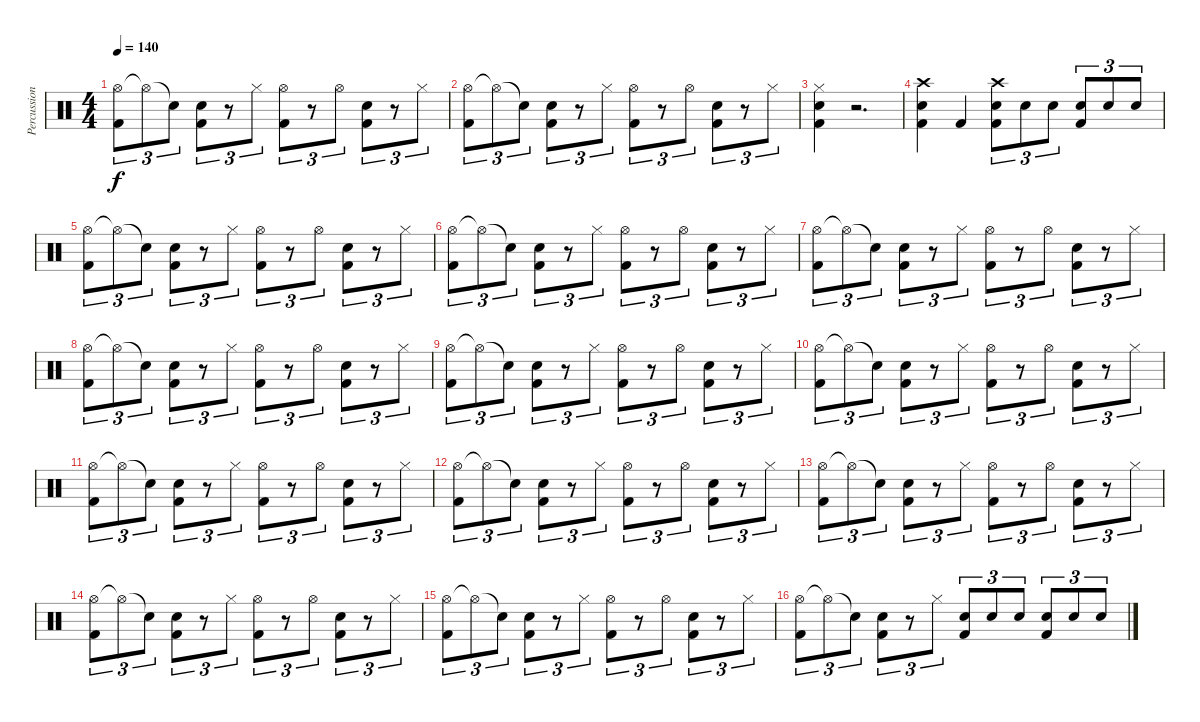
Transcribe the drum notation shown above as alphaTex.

\track ("Percussion" "Percussion") {instrument percussion}
\staff {score}
\articulation defaults
\ts (4 4)
\tempo 140
\clef neutral
\ks c
("Hi-Hat (open)" "Kick (hit) 2").8{tu (3 2) dy f} "Hi-Hat (open)"{t}.8{tu (3 2)} "Snare (hit)"{t}.8{tu (3 2)} ("Snare (hit) 2" "Kick (hit) 2").8{tu (3 2)} r.8{tu (3 2)} "Hi-Hat (closed)".8{tu (3 2)} ("Hi-Hat (open)" "Kick (hit) 2").8{tu (3 2)} r.8{tu (3 2)} "Hi-Hat (open)".8{tu (3 2)} ("Snare (hit) 2" "Kick (hit) 2").8{tu (3 2)} r.8{tu (3 2)} "Hi-Hat (closed)".8{tu (3 2)} |
("Hi-Hat (open)" "Kick (hit) 2").8{tu (3 2)} "Hi-Hat (open)"{t}.8{tu (3 2)} "Snare (hit)"{t}.8{tu (3 2)} ("Snare (hit) 2" "Kick (hit) 2").8{tu (3 2)} r.8{tu (3 2)} "Hi-Hat (closed)".8{tu (3 2)} ("Hi-Hat (open)" "Kick (hit) 2").8{tu (3 2)} r.8{tu (3 2)} "Hi-Hat (open)".8{tu (3 2)} ("Snare (hit) 2" "Kick (hit) 2").8{tu (3 2)} r.8{tu (3 2)} "Hi-Hat (closed)".8{tu (3 2)} |
("Hi-Hat (closed)" "Snare (hit) 2" "Kick (hit) 2").4 r.2{d} |
("Crash high (hit)" "Snare (hit) 2" "Kick (hit) 2").4 "Kick (hit) 2".4 ("Crash high (hit)" "Snare (hit) 2" "Kick (hit) 2").8{tu (3 2)} "Snare (hit) 2".8{tu (3 2)} "Snare (hit) 2".8{tu (3 2)} ("Snare (hit) 2" "Kick (hit) 2").8{tu (3 2)} "Snare (hit) 2".8{tu (3 2)} "Snare (hit) 2".8{tu (3 2)} |
("Hi-Hat (open)" "Kick (hit) 2").8{tu (3 2)} "Hi-Hat (open)"{t}.8{tu (3 2)} "Snare (hit)"{t}.8{tu (3 2)} ("Snare (hit) 2" "Kick (hit) 2").8{tu (3 2)} r.8{tu (3 2)} "Hi-Hat (closed)".8{tu (3 2)} ("Hi-Hat (open)" "Kick (hit) 2").8{tu (3 2)} r.8{tu (3 2)} "Hi-Hat (open)".8{tu (3 2)} ("Snare (hit) 2" "Kick (hit) 2").8{tu (3 2)} r.8{tu (3 2)} "Hi-Hat (closed)".8{tu (3 2)} |
("Hi-Hat (open)" "Kick (hit) 2").8{tu (3 2)} "Hi-Hat (open)"{t}.8{tu (3 2)} "Snare (hit)"{t}.8{tu (3 2)} ("Snare (hit) 2" "Kick (hit) 2").8{tu (3 2)} r.8{tu (3 2)} "Hi-Hat (closed)".8{tu (3 2)} ("Hi-Hat (open)" "Kick (hit) 2").8{tu (3 2)} r.8{tu (3 2)} "Hi-Hat (open)".8{tu (3 2)} ("Snare (hit) 2" "Kick (hit) 2").8{tu (3 2)} r.8{tu (3 2)} "Hi-Hat (closed)".8{tu (3 2)} |
("Hi-Hat (open)" "Kick (hit) 2").8{tu (3 2)} "Hi-Hat (open)"{t}.8{tu (3 2)} "Snare (hit)"{t}.8{tu (3 2)} ("Snare (hit) 2" "Kick (hit) 2").8{tu (3 2)} r.8{tu (3 2)} "Hi-Hat (closed)".8{tu (3 2)} ("Hi-Hat (open)" "Kick (hit) 2").8{tu (3 2)} r.8{tu (3 2)} "Hi-Hat (open)".8{tu (3 2)} ("Snare (hit) 2" "Kick (hit) 2").8{tu (3 2)} r.8{tu (3 2)} "Hi-Hat (closed)".8{tu (3 2)} |
("Hi-Hat (open)" "Kick (hit) 2").8{tu (3 2)} "Hi-Hat (open)"{t}.8{tu (3 2)} "Snare (hit)"{t}.8{tu (3 2)} ("Snare (hit) 2" "Kick (hit) 2").8{tu (3 2)} r.8{tu (3 2)} "Hi-Hat (closed)".8{tu (3 2)} ("Hi-Hat (open)" "Kick (hit) 2").8{tu (3 2)} r.8{tu (3 2)} "Hi-Hat (open)".8{tu (3 2)} ("Snare (hit) 2" "Kick (hit) 2").8{tu (3 2)} r.8{tu (3 2)} "Hi-Hat (closed)".8{tu (3 2)} |
("Hi-Hat (open)" "Kick (hit) 2").8{tu (3 2)} "Hi-Hat (open)"{t}.8{tu (3 2)} "Snare (hit)"{t}.8{tu (3 2)} ("Snare (hit) 2" "Kick (hit) 2").8{tu (3 2)} r.8{tu (3 2)} "Hi-Hat (closed)".8{tu (3 2)} ("Hi-Hat (open)" "Kick (hit) 2").8{tu (3 2)} r.8{tu (3 2)} "Hi-Hat (open)".8{tu (3 2)} ("Snare (hit) 2" "Kick (hit) 2").8{tu (3 2)} r.8{tu (3 2)} "Hi-Hat (closed)".8{tu (3 2)} |
("Hi-Hat (open)" "Kick (hit) 2").8{tu (3 2)} "Hi-Hat (open)"{t}.8{tu (3 2)} "Snare (hit)"{t}.8{tu (3 2)} ("Snare (hit) 2" "Kick (hit) 2").8{tu (3 2)} r.8{tu (3 2)} "Hi-Hat (closed)".8{tu (3 2)} ("Hi-Hat (open)" "Kick (hit) 2").8{tu (3 2)} r.8{tu (3 2)} "Hi-Hat (open)".8{tu (3 2)} ("Snare (hit) 2" "Kick (hit) 2").8{tu (3 2)} r.8{tu (3 2)} "Hi-Hat (closed)".8{tu (3 2)} |
("Hi-Hat (open)" "Kick (hit) 2").8{tu (3 2)} "Hi-Hat (open)"{t}.8{tu (3 2)} "Snare (hit)"{t}.8{tu (3 2)} ("Snare (hit) 2" "Kick (hit) 2").8{tu (3 2)} r.8{tu (3 2)} "Hi-Hat (closed)".8{tu (3 2)} ("Hi-Hat (open)" "Kick (hit) 2").8{tu (3 2)} r.8{tu (3 2)} "Hi-Hat (open)".8{tu (3 2)} ("Snare (hit) 2" "Kick (hit) 2").8{tu (3 2)} r.8{tu (3 2)} "Hi-Hat (closed)".8{tu (3 2)} |
("Hi-Hat (open)" "Kick (hit) 2").8{tu (3 2)} "Hi-Hat (open)"{t}.8{tu (3 2)} "Snare (hit)"{t}.8{tu (3 2)} ("Snare (hit) 2" "Kick (hit) 2").8{tu (3 2)} r.8{tu (3 2)} "Hi-Hat (closed)".8{tu (3 2)} ("Hi-Hat (open)" "Kick (hit) 2").8{tu (3 2)} r.8{tu (3 2)} "Hi-Hat (open)".8{tu (3 2)} ("Snare (hit) 2" "Kick (hit) 2").8{tu (3 2)} r.8{tu (3 2)} "Hi-Hat (closed)".8{tu (3 2)} |
("Hi-Hat (open)" "Kick (hit) 2").8{tu (3 2)} "Hi-Hat (open)"{t}.8{tu (3 2)} "Snare (hit)"{t}.8{tu (3 2)} ("Snare (hit) 2" "Kick (hit) 2").8{tu (3 2)} r.8{tu (3 2)} "Hi-Hat (closed)".8{tu (3 2)} ("Hi-Hat (open)" "Kick (hit) 2").8{tu (3 2)} r.8{tu (3 2)} "Hi-Hat (open)".8{tu (3 2)} ("Snare (hit) 2" "Kick (hit) 2").8{tu (3 2)} r.8{tu (3 2)} "Hi-Hat (closed)".8{tu (3 2)} |
("Hi-Hat (open)" "Kick (hit) 2").8{tu (3 2)} "Hi-Hat (open)"{t}.8{tu (3 2)} "Snare (hit)"{t}.8{tu (3 2)} ("Snare (hit) 2" "Kick (hit) 2").8{tu (3 2)} r.8{tu (3 2)} "Hi-Hat (closed)".8{tu (3 2)} ("Hi-Hat (open)" "Kick (hit) 2").8{tu (3 2)} r.8{tu (3 2)} "Hi-Hat (open)".8{tu (3 2)} ("Snare (hit) 2" "Kick (hit) 2").8{tu (3 2)} r.8{tu (3 2)} "Hi-Hat (closed)".8{tu (3 2)} |
("Hi-Hat (open)" "Kick (hit) 2").8{tu (3 2)} "Hi-Hat (open)"{t}.8{tu (3 2)} "Snare (hit)"{t}.8{tu (3 2)} ("Snare (hit) 2" "Kick (hit) 2").8{tu (3 2)} r.8{tu (3 2)} "Hi-Hat (closed)".8{tu (3 2)} ("Hi-Hat (open)" "Kick (hit) 2").8{tu (3 2)} r.8{tu (3 2)} "Hi-Hat (open)".8{tu (3 2)} ("Snare (hit) 2" "Kick (hit) 2").8{tu (3 2)} r.8{tu (3 2)} "Hi-Hat (closed)".8{tu (3 2)} |
("Hi-Hat (open)" "Kick (hit) 2").8{tu (3 2)} "Hi-Hat (open)"{t}.8{tu (3 2)} "Snare (hit)"{t}.8{tu (3 2)} ("Snare (hit) 2" "Kick (hit) 2").8{tu (3 2)} r.8{tu (3 2)} "Hi-Hat (closed)".8{tu (3 2)} ("Snare (hit) 2" "Kick (hit) 2").8{tu (3 2)} "Snare (hit) 2".8{tu (3 2)} "Snare (hit) 2".8{tu (3 2)} ("Snare (hit) 2" "Kick (hit) 2").8{tu (3 2)} "Snare (hit) 2".8{tu (3 2)} "Snare (hit) 2".8{tu (3 2)}
